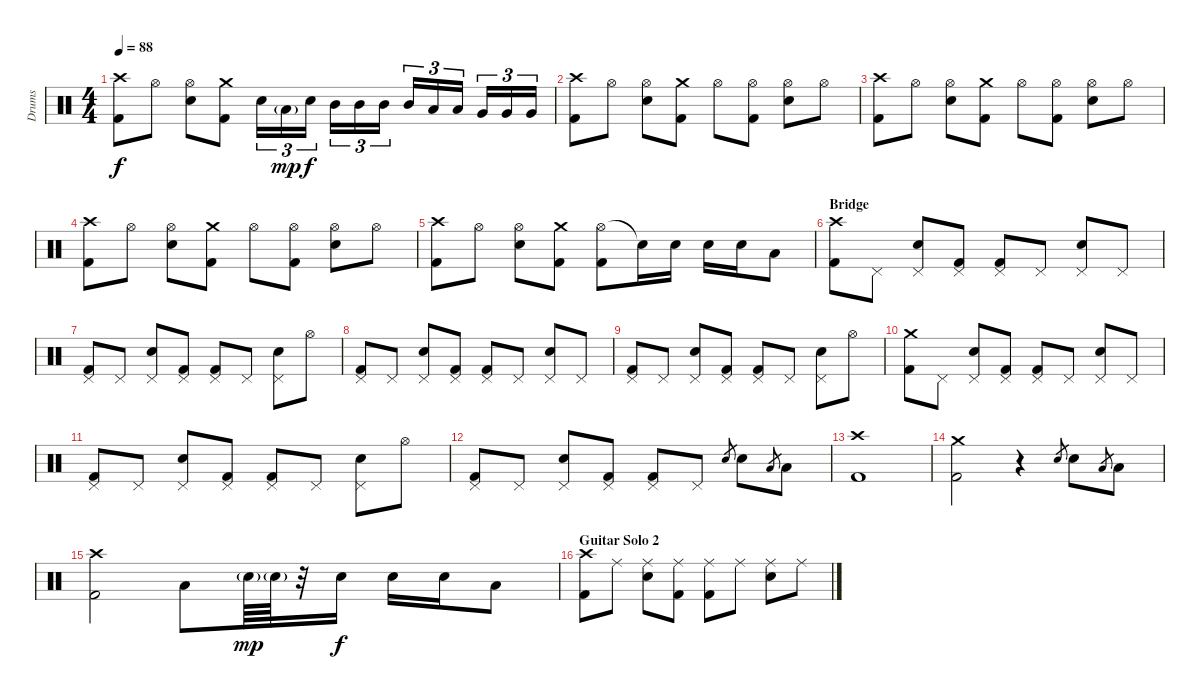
\track ("Drums" "Drums") {instrument percussion}
\staff {score}
\articulation defaults
\ts (4 4)
\tempo 88
\clef neutral
\ks c
("Crash high (hit)" "Kick (hit) 2").8{dy f} "Hi-Hat (open)".8 ("Hi-Hat (open)" "Electric Snare (hit)").8 ("Crash medium (hit)" "Kick (hit) 2").8 "Electric Snare (hit)".16{tu (3 2)} "Low Tom (hit)"{g}.16{tu (3 2) dy mp} "Electric Snare (hit)".16{tu (3 2) dy f} "Mid Tom (hit)".16{tu (3 2)} "Mid Tom (hit)".16{tu (3 2)} "Mid Tom (hit)".16{tu (3 2)} "Mid Tom (hit)".16{tu (3 2)} "Low Tom (hit)".16{tu (3 2)} "Low Tom (hit)".16{tu (3 2)} "Very Low Tom (hit)".16{tu (3 2)} "Very Low Tom (hit)".16{tu (3 2)} "Very Low Tom (hit)".16{tu (3 2)} |
("Crash high (hit)" "Kick (hit) 2").8 "Hi-Hat (open)".8 ("Hi-Hat (open)" "Electric Snare (hit)").8 ("Crash medium (hit)" "Kick (hit) 2").8 "Hi-Hat (open)".8 ("Hi-Hat (open)" "Kick (hit) 2").8 ("Hi-Hat (open)" "Electric Snare (hit)").8 "Hi-Hat (open)".8 |
("Crash high (hit)" "Kick (hit) 2").8 "Hi-Hat (open)".8 ("Hi-Hat (open)" "Electric Snare (hit)").8 ("Crash medium (hit)" "Kick (hit) 2").8 "Hi-Hat (open)".8 ("Hi-Hat (open)" "Kick (hit) 2").8 ("Hi-Hat (open)" "Electric Snare (hit)").8 "Hi-Hat (open)".8 |
("Crash high (hit)" "Kick (hit) 2").8 "Hi-Hat (open)".8 ("Hi-Hat (open)" "Electric Snare (hit)").8 ("Crash medium (hit)" "Kick (hit) 2").8 "Hi-Hat (open)".8 ("Hi-Hat (open)" "Kick (hit) 2").8 ("Hi-Hat (open)" "Electric Snare (hit)").8 "Hi-Hat (open)".8 |
("Crash high (hit)" "Kick (hit) 2").8 "Hi-Hat (open)".8 ("Hi-Hat (open)" "Electric Snare (hit)").8 ("Crash medium (hit)" "Kick (hit) 2").8 ("Hi-Hat (open)" "Kick (hit) 2").8 "Snare (hit)"{t}.16 "Electric Snare (hit)".16 "Electric Snare (hit)".16 "Electric Snare (hit)".16 "Low Tom (hit)".8 |
\section ("" "Bridge")
("Crash high (hit)" "Kick (hit) 2").8 "Pedal Hi-Hat (hit)".8 ("Pedal Hi-Hat (hit)" "Electric Snare (hit)").8 ("Pedal Hi-Hat (hit)" "Kick (hit) 2").8 ("Pedal Hi-Hat (hit)" "Kick (hit) 2").8 "Pedal Hi-Hat (hit)".8 ("Pedal Hi-Hat (hit)" "Electric Snare (hit)").8 "Pedal Hi-Hat (hit)".8 |
("Pedal Hi-Hat (hit)" "Kick (hit) 2").8 "Pedal Hi-Hat (hit)".8 ("Pedal Hi-Hat (hit)" "Electric Snare (hit)").8 ("Pedal Hi-Hat (hit)" "Kick (hit) 2").8 ("Pedal Hi-Hat (hit)" "Kick (hit) 2").8 "Pedal Hi-Hat (hit)".8 ("Pedal Hi-Hat (hit)" "Electric Snare (hit)").8 "Hi-Hat (open)".8 |
("Pedal Hi-Hat (hit)" "Kick (hit) 2").8 "Pedal Hi-Hat (hit)".8 ("Pedal Hi-Hat (hit)" "Electric Snare (hit)").8 ("Pedal Hi-Hat (hit)" "Kick (hit) 2").8 ("Pedal Hi-Hat (hit)" "Kick (hit) 2").8 "Pedal Hi-Hat (hit)".8 ("Pedal Hi-Hat (hit)" "Electric Snare (hit)").8 "Pedal Hi-Hat (hit)".8 |
("Pedal Hi-Hat (hit)" "Kick (hit) 2").8 "Pedal Hi-Hat (hit)".8 ("Pedal Hi-Hat (hit)" "Electric Snare (hit)").8 ("Pedal Hi-Hat (hit)" "Kick (hit) 2").8 ("Pedal Hi-Hat (hit)" "Kick (hit) 2").8 "Pedal Hi-Hat (hit)".8 ("Pedal Hi-Hat (hit)" "Electric Snare (hit)").8 "Hi-Hat (open)".8 |
("Crash medium (hit)" "Kick (hit) 2").8 "Pedal Hi-Hat (hit)".8 ("Pedal Hi-Hat (hit)" "Electric Snare (hit)").8 ("Pedal Hi-Hat (hit)" "Kick (hit) 2").8 ("Pedal Hi-Hat (hit)" "Kick (hit) 2").8 "Pedal Hi-Hat (hit)".8 ("Pedal Hi-Hat (hit)" "Electric Snare (hit)").8 "Pedal Hi-Hat (hit)".8 |
("Pedal Hi-Hat (hit)" "Kick (hit) 2").8 "Pedal Hi-Hat (hit)".8 ("Pedal Hi-Hat (hit)" "Electric Snare (hit)").8 ("Pedal Hi-Hat (hit)" "Kick (hit) 2").8 ("Pedal Hi-Hat (hit)" "Kick (hit) 2").8 "Pedal Hi-Hat (hit)".8 ("Pedal Hi-Hat (hit)" "Electric Snare (hit)").8 "Hi-Hat (open)".8 |
("Pedal Hi-Hat (hit)" "Kick (hit) 2").8 "Pedal Hi-Hat (hit)".8 ("Pedal Hi-Hat (hit)" "Electric Snare (hit)").8 ("Pedal Hi-Hat (hit)" "Kick (hit) 2").8 ("Pedal Hi-Hat (hit)" "Kick (hit) 2").8 "Pedal Hi-Hat (hit)".8 "Electric Snare (hit)".8{gr} "Electric Snare (hit)".8 "Low Tom (hit)".8{gr} "Low Tom (hit)".8 |
("Crash high (hit)" "Kick (hit) 2").1 |
("Crash medium (hit)" "Kick (hit) 2").2 r.4 "Electric Snare (hit)".8{gr} "Electric Snare (hit)".8 "Low Tom (hit)".8{gr} "Low Tom (hit)".8 |
("Crash high (hit)" "Kick (hit) 2").2 "Low Tom (hit)".8 "Electric Snare (hit)"{g}.64{dy mp} "Electric Snare (hit)"{g}.64 r.32 "Electric Snare (hit)".16{dy f} "Electric Snare (hit)".16 "Electric Snare (hit)".16 "Low Tom (hit)".8 |
\section ("" "Guitar Solo 2")
("Crash high (hit)" "Kick (hit) 2").8 "Ride (middle)".8 ("Ride (middle)" "Electric Snare (hit)").8 ("Ride (middle)" "Kick (hit) 2").8 ("Ride (middle)" "Kick (hit) 2").8 "Ride (middle)".8 ("Ride (middle)" "Electric Snare (hit)").8 "Ride (middle)".8
